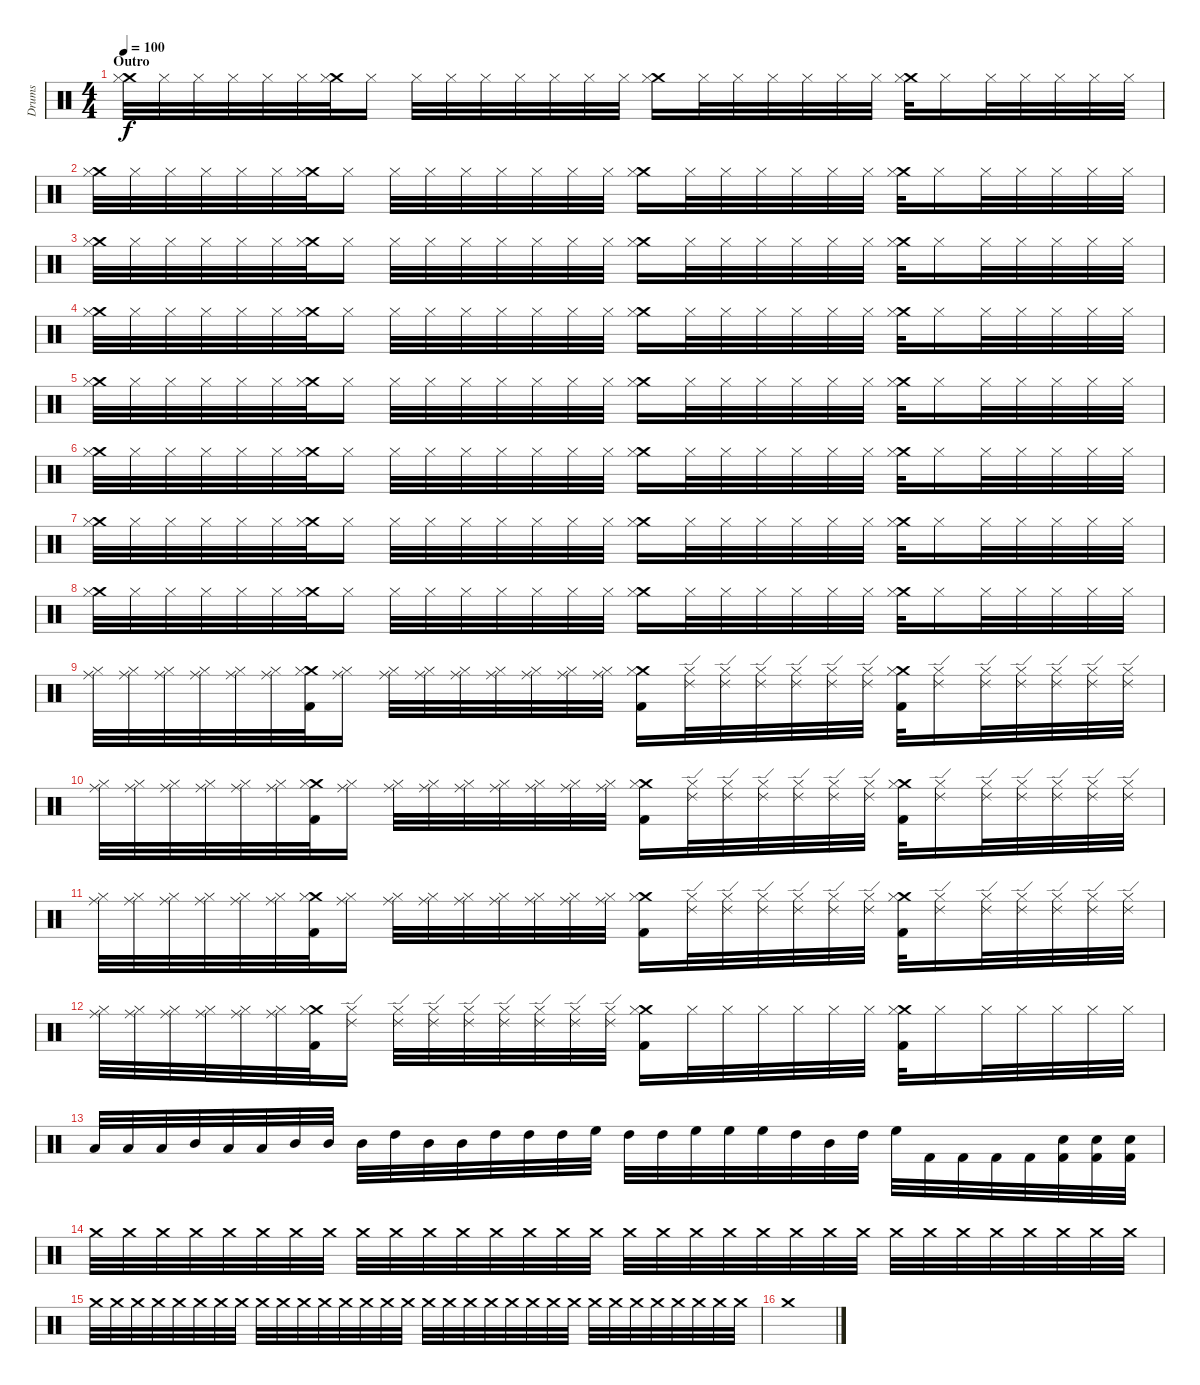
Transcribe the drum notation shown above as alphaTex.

\track ("Drums" "Drums") {instrument percussion}
\staff {score}
\articulation defaults
\ts (4 4)
\section ("" "Outro")
\tempo 100
\clef neutral
\ks c
("Crash medium (hit)" "Hi-Hat (closed)").32{dy f} "Hi-Hat (closed)".32 "Hi-Hat (closed)".32 "Hi-Hat (closed)".32 "Hi-Hat (closed)".32 "Hi-Hat (closed)".32 ("Crash medium (hit)" "Hi-Hat (closed)").32 "Hi-Hat (closed)".16 "Hi-Hat (closed)".32 "Hi-Hat (closed)".32 "Hi-Hat (closed)".32 "Hi-Hat (closed)".32 "Hi-Hat (closed)".32 "Hi-Hat (closed)".32 "Hi-Hat (closed)".32 ("Crash medium (hit)" "Hi-Hat (closed)").16 "Hi-Hat (closed)".32 "Hi-Hat (closed)".32 "Hi-Hat (closed)".32 "Hi-Hat (closed)".32 "Hi-Hat (closed)".32 "Hi-Hat (closed)".32 ("Crash medium (hit)" "Hi-Hat (closed)").32 "Hi-Hat (closed)".16 "Hi-Hat (closed)".32 "Hi-Hat (closed)".32 "Hi-Hat (closed)".32 "Hi-Hat (closed)".32 "Hi-Hat (closed)".32 |
("Crash medium (hit)" "Hi-Hat (closed)").32 "Hi-Hat (closed)".32 "Hi-Hat (closed)".32 "Hi-Hat (closed)".32 "Hi-Hat (closed)".32 "Hi-Hat (closed)".32 ("Crash medium (hit)" "Hi-Hat (closed)").32 "Hi-Hat (closed)".16 "Hi-Hat (closed)".32 "Hi-Hat (closed)".32 "Hi-Hat (closed)".32 "Hi-Hat (closed)".32 "Hi-Hat (closed)".32 "Hi-Hat (closed)".32 "Hi-Hat (closed)".32 ("Crash medium (hit)" "Hi-Hat (closed)").16 "Hi-Hat (closed)".32 "Hi-Hat (closed)".32 "Hi-Hat (closed)".32 "Hi-Hat (closed)".32 "Hi-Hat (closed)".32 "Hi-Hat (closed)".32 ("Crash medium (hit)" "Hi-Hat (closed)").32 "Hi-Hat (closed)".16 "Hi-Hat (closed)".32 "Hi-Hat (closed)".32 "Hi-Hat (closed)".32 "Hi-Hat (closed)".32 "Hi-Hat (closed)".32 |
("Crash medium (hit)" "Hi-Hat (closed)").32 "Hi-Hat (closed)".32 "Hi-Hat (closed)".32 "Hi-Hat (closed)".32 "Hi-Hat (closed)".32 "Hi-Hat (closed)".32 ("Crash medium (hit)" "Hi-Hat (closed)").32 "Hi-Hat (closed)".16 "Hi-Hat (closed)".32 "Hi-Hat (closed)".32 "Hi-Hat (closed)".32 "Hi-Hat (closed)".32 "Hi-Hat (closed)".32 "Hi-Hat (closed)".32 "Hi-Hat (closed)".32 ("Crash medium (hit)" "Hi-Hat (closed)").16 "Hi-Hat (closed)".32 "Hi-Hat (closed)".32 "Hi-Hat (closed)".32 "Hi-Hat (closed)".32 "Hi-Hat (closed)".32 "Hi-Hat (closed)".32 ("Crash medium (hit)" "Hi-Hat (closed)").32 "Hi-Hat (closed)".16 "Hi-Hat (closed)".32 "Hi-Hat (closed)".32 "Hi-Hat (closed)".32 "Hi-Hat (closed)".32 "Hi-Hat (closed)".32 |
("Crash medium (hit)" "Hi-Hat (closed)").32 "Hi-Hat (closed)".32 "Hi-Hat (closed)".32 "Hi-Hat (closed)".32 "Hi-Hat (closed)".32 "Hi-Hat (closed)".32 ("Crash medium (hit)" "Hi-Hat (closed)").32 "Hi-Hat (closed)".16 "Hi-Hat (closed)".32 "Hi-Hat (closed)".32 "Hi-Hat (closed)".32 "Hi-Hat (closed)".32 "Hi-Hat (closed)".32 "Hi-Hat (closed)".32 "Hi-Hat (closed)".32 ("Crash medium (hit)" "Hi-Hat (closed)").16 "Hi-Hat (closed)".32 "Hi-Hat (closed)".32 "Hi-Hat (closed)".32 "Hi-Hat (closed)".32 "Hi-Hat (closed)".32 "Hi-Hat (closed)".32 ("Crash medium (hit)" "Hi-Hat (closed)").32 "Hi-Hat (closed)".16 "Hi-Hat (closed)".32 "Hi-Hat (closed)".32 "Hi-Hat (closed)".32 "Hi-Hat (closed)".32 "Hi-Hat (closed)".32 |
("Crash medium (hit)" "Hi-Hat (closed)").32 "Hi-Hat (closed)".32 "Hi-Hat (closed)".32 "Hi-Hat (closed)".32 "Hi-Hat (closed)".32 "Hi-Hat (closed)".32 ("Crash medium (hit)" "Hi-Hat (closed)").32 "Hi-Hat (closed)".16 "Hi-Hat (closed)".32 "Hi-Hat (closed)".32 "Hi-Hat (closed)".32 "Hi-Hat (closed)".32 "Hi-Hat (closed)".32 "Hi-Hat (closed)".32 "Hi-Hat (closed)".32 ("Crash medium (hit)" "Hi-Hat (closed)").16 "Hi-Hat (closed)".32 "Hi-Hat (closed)".32 "Hi-Hat (closed)".32 "Hi-Hat (closed)".32 "Hi-Hat (closed)".32 "Hi-Hat (closed)".32 ("Crash medium (hit)" "Hi-Hat (closed)").32 "Hi-Hat (closed)".16 "Hi-Hat (closed)".32 "Hi-Hat (closed)".32 "Hi-Hat (closed)".32 "Hi-Hat (closed)".32 "Hi-Hat (closed)".32 |
("Crash medium (hit)" "Hi-Hat (closed)").32 "Hi-Hat (closed)".32 "Hi-Hat (closed)".32 "Hi-Hat (closed)".32 "Hi-Hat (closed)".32 "Hi-Hat (closed)".32 ("Crash medium (hit)" "Hi-Hat (closed)").32 "Hi-Hat (closed)".16 "Hi-Hat (closed)".32 "Hi-Hat (closed)".32 "Hi-Hat (closed)".32 "Hi-Hat (closed)".32 "Hi-Hat (closed)".32 "Hi-Hat (closed)".32 "Hi-Hat (closed)".32 ("Crash medium (hit)" "Hi-Hat (closed)").16 "Hi-Hat (closed)".32 "Hi-Hat (closed)".32 "Hi-Hat (closed)".32 "Hi-Hat (closed)".32 "Hi-Hat (closed)".32 "Hi-Hat (closed)".32 ("Crash medium (hit)" "Hi-Hat (closed)").32 "Hi-Hat (closed)".16 "Hi-Hat (closed)".32 "Hi-Hat (closed)".32 "Hi-Hat (closed)".32 "Hi-Hat (closed)".32 "Hi-Hat (closed)".32 |
("Crash medium (hit)" "Hi-Hat (closed)").32 "Hi-Hat (closed)".32 "Hi-Hat (closed)".32 "Hi-Hat (closed)".32 "Hi-Hat (closed)".32 "Hi-Hat (closed)".32 ("Crash medium (hit)" "Hi-Hat (closed)").32 "Hi-Hat (closed)".16 "Hi-Hat (closed)".32 "Hi-Hat (closed)".32 "Hi-Hat (closed)".32 "Hi-Hat (closed)".32 "Hi-Hat (closed)".32 "Hi-Hat (closed)".32 "Hi-Hat (closed)".32 ("Crash medium (hit)" "Hi-Hat (closed)").16 "Hi-Hat (closed)".32 "Hi-Hat (closed)".32 "Hi-Hat (closed)".32 "Hi-Hat (closed)".32 "Hi-Hat (closed)".32 "Hi-Hat (closed)".32 ("Crash medium (hit)" "Hi-Hat (closed)").32 "Hi-Hat (closed)".16 "Hi-Hat (closed)".32 "Hi-Hat (closed)".32 "Hi-Hat (closed)".32 "Hi-Hat (closed)".32 "Hi-Hat (closed)".32 |
("Crash medium (hit)" "Hi-Hat (closed)").32 "Hi-Hat (closed)".32 "Hi-Hat (closed)".32 "Hi-Hat (closed)".32 "Hi-Hat (closed)".32 "Hi-Hat (closed)".32 ("Crash medium (hit)" "Hi-Hat (closed)").32 "Hi-Hat (closed)".16 "Hi-Hat (closed)".32 "Hi-Hat (closed)".32 "Hi-Hat (closed)".32 "Hi-Hat (closed)".32 "Hi-Hat (closed)".32 "Hi-Hat (closed)".32 "Hi-Hat (closed)".32 ("Crash medium (hit)" "Hi-Hat (closed)").16 "Hi-Hat (closed)".32 "Hi-Hat (closed)".32 "Hi-Hat (closed)".32 "Hi-Hat (closed)".32 "Hi-Hat (closed)".32 "Hi-Hat (closed)".32 ("Crash medium (hit)" "Hi-Hat (closed)").32 "Hi-Hat (closed)".16 "Hi-Hat (closed)".32 "Hi-Hat (closed)".32 "Hi-Hat (closed)".32 "Hi-Hat (closed)".32 "Hi-Hat (closed)".32 |
("Ride (middle)" "Hi-Hat (closed)").32 ("Ride (middle)" "Hi-Hat (closed)").32 ("Ride (middle)" "Hi-Hat (closed)").32 ("Ride (middle)" "Hi-Hat (closed)").32 ("Ride (middle)" "Hi-Hat (closed)").32 ("Ride (middle)" "Hi-Hat (closed)").32 ("Crash medium (hit)" "Hi-Hat (closed)" "Kick (hit) 2").32 ("Ride (middle)" "Hi-Hat (closed)").16 ("Ride (middle)" "Hi-Hat (closed)").32 ("Ride (middle)" "Hi-Hat (closed)").32 ("Ride (middle)" "Hi-Hat (closed)").32 ("Ride (middle)" "Hi-Hat (closed)").32 ("Ride (middle)" "Hi-Hat (closed)").32 ("Ride (middle)" "Hi-Hat (closed)").32 ("Ride (middle)" "Hi-Hat (closed)").32 ("Crash medium (hit)" "Hi-Hat (closed)" "Kick (hit) 2").16 ("Ride (edge) 2" "Hi-Hat (closed)").32 ("Ride (edge) 2" "Hi-Hat (closed)").32 ("Ride (edge) 2" "Hi-Hat (closed)").32 ("Ride (edge) 2" "Hi-Hat (closed)").32 ("Ride (edge) 2" "Hi-Hat (closed)").32 ("Ride (edge) 2" "Hi-Hat (closed)").32 ("Crash medium (hit)" "Hi-Hat (closed)" "Kick (hit) 2").32 ("Ride (edge) 2" "Hi-Hat (closed)").16 ("Ride (edge) 2" "Hi-Hat (closed)").32 ("Ride (edge) 2" "Hi-Hat (closed)").32 ("Ride (edge) 2" "Hi-Hat (closed)").32 ("Ride (edge) 2" "Hi-Hat (closed)").32 ("Ride (edge) 2" "Hi-Hat (closed)").32 |
("Ride (middle)" "Hi-Hat (closed)").32 ("Ride (middle)" "Hi-Hat (closed)").32 ("Ride (middle)" "Hi-Hat (closed)").32 ("Ride (middle)" "Hi-Hat (closed)").32 ("Ride (middle)" "Hi-Hat (closed)").32 ("Ride (middle)" "Hi-Hat (closed)").32 ("Crash medium (hit)" "Hi-Hat (closed)" "Kick (hit) 2").32 ("Ride (middle)" "Hi-Hat (closed)").16 ("Ride (middle)" "Hi-Hat (closed)").32 ("Ride (middle)" "Hi-Hat (closed)").32 ("Ride (middle)" "Hi-Hat (closed)").32 ("Ride (middle)" "Hi-Hat (closed)").32 ("Ride (middle)" "Hi-Hat (closed)").32 ("Ride (middle)" "Hi-Hat (closed)").32 ("Ride (middle)" "Hi-Hat (closed)").32 ("Crash medium (hit)" "Hi-Hat (closed)" "Kick (hit) 2").16 ("Ride (edge) 2" "Hi-Hat (closed)").32 ("Ride (edge) 2" "Hi-Hat (closed)").32 ("Ride (edge) 2" "Hi-Hat (closed)").32 ("Ride (edge) 2" "Hi-Hat (closed)").32 ("Ride (edge) 2" "Hi-Hat (closed)").32 ("Ride (edge) 2" "Hi-Hat (closed)").32 ("Crash medium (hit)" "Hi-Hat (closed)" "Kick (hit) 2").32 ("Ride (edge) 2" "Hi-Hat (closed)").16 ("Ride (edge) 2" "Hi-Hat (closed)").32 ("Ride (edge) 2" "Hi-Hat (closed)").32 ("Ride (edge) 2" "Hi-Hat (closed)").32 ("Ride (edge) 2" "Hi-Hat (closed)").32 ("Ride (edge) 2" "Hi-Hat (closed)").32 |
("Ride (middle)" "Hi-Hat (closed)").32 ("Ride (middle)" "Hi-Hat (closed)").32 ("Ride (middle)" "Hi-Hat (closed)").32 ("Ride (middle)" "Hi-Hat (closed)").32 ("Ride (middle)" "Hi-Hat (closed)").32 ("Ride (middle)" "Hi-Hat (closed)").32 ("Crash medium (hit)" "Hi-Hat (closed)" "Kick (hit) 2").32 ("Ride (middle)" "Hi-Hat (closed)").16 ("Ride (middle)" "Hi-Hat (closed)").32 ("Ride (middle)" "Hi-Hat (closed)").32 ("Ride (middle)" "Hi-Hat (closed)").32 ("Ride (middle)" "Hi-Hat (closed)").32 ("Ride (middle)" "Hi-Hat (closed)").32 ("Ride (middle)" "Hi-Hat (closed)").32 ("Ride (middle)" "Hi-Hat (closed)").32 ("Crash medium (hit)" "Hi-Hat (closed)" "Kick (hit) 2").16 ("Ride (edge) 2" "Hi-Hat (closed)").32 ("Ride (edge) 2" "Hi-Hat (closed)").32 ("Ride (edge) 2" "Hi-Hat (closed)").32 ("Ride (edge) 2" "Hi-Hat (closed)").32 ("Ride (edge) 2" "Hi-Hat (closed)").32 ("Ride (edge) 2" "Hi-Hat (closed)").32 ("Crash medium (hit)" "Hi-Hat (closed)" "Kick (hit) 2").32 ("Ride (edge) 2" "Hi-Hat (closed)").16 ("Ride (edge) 2" "Hi-Hat (closed)").32 ("Ride (edge) 2" "Hi-Hat (closed)").32 ("Ride (edge) 2" "Hi-Hat (closed)").32 ("Ride (edge) 2" "Hi-Hat (closed)").32 ("Ride (edge) 2" "Hi-Hat (closed)").32 |
("Ride (middle)" "Hi-Hat (closed)").32 ("Ride (middle)" "Hi-Hat (closed)").32 ("Ride (middle)" "Hi-Hat (closed)").32 ("Ride (middle)" "Hi-Hat (closed)").32 ("Ride (middle)" "Hi-Hat (closed)").32 ("Ride (middle)" "Hi-Hat (closed)").32 ("Crash medium (hit)" "Hi-Hat (closed)" "Kick (hit) 2").32 ("Ride (edge) 2" "Hi-Hat (closed)").16 ("Ride (edge) 2" "Hi-Hat (closed)").32 ("Ride (edge) 2" "Hi-Hat (closed)").32 ("Ride (edge) 2" "Hi-Hat (closed)").32 ("Ride (edge) 2" "Hi-Hat (closed)").32 ("Ride (edge) 2" "Hi-Hat (closed)").32 ("Ride (edge) 2" "Hi-Hat (closed)").32 ("Ride (edge) 2" "Hi-Hat (closed)").32 ("Crash medium (hit)" "Hi-Hat (closed)" "Kick (hit) 2").16 "Hi-Hat (closed)".32 "Hi-Hat (closed)".32 "Hi-Hat (closed)".32 "Hi-Hat (closed)".32 "Hi-Hat (closed)".32 "Hi-Hat (closed)".32 ("Crash medium (hit)" "Hi-Hat (closed)" "Kick (hit) 2").32 "Hi-Hat (closed)".16 "Hi-Hat (closed)".32 "Hi-Hat (closed)".32 "Hi-Hat (closed)".32 "Hi-Hat (closed)".32 "Hi-Hat (closed)".32 |
"Low Tom (hit)".32 "Low Tom (hit)".32 "Low Tom (hit)".32 "Mid Tom (hit)".32 "Low Tom (hit)".32 "Low Tom (hit)".32 "Mid Tom (hit)".32 "Mid Tom (hit)".32 "Mid Tom (hit)".32 "High Tom (hit)".32 "Mid Tom (hit)".32 "Mid Tom (hit)".32 "High Tom (hit)".32 "High Tom (hit)".32 "High Tom (hit)".32 "High Floor Tom (hit)".32 "High Tom (hit)".32 "High Tom (hit)".32 "High Floor Tom (hit)".32 "High Floor Tom (hit)".32 "High Floor Tom (hit)".32 "High Tom (hit)".32 "Mid Tom (hit)".32 "High Tom (hit)".32 "High Floor Tom (hit)".32 "Kick (hit) 2".32 "Kick (hit) 2".32 "Kick (hit) 2".32 "Kick (hit) 2".32 ("Snare (hit) 2" "Kick (hit) 2").32 ("Snare (hit) 2" "Kick (hit) 2").32 ("Snare (hit) 2" "Kick (hit) 2").32 |
"Crash medium (hit)".32{volume 0} "Crash medium (hit)".32 "Crash medium (hit)".32 "Crash medium (hit)".32 "Crash medium (hit)".32 "Crash medium (hit)".32 "Crash medium (hit)".32 "Crash medium (hit)".32 "Crash medium (hit)".32 "Crash medium (hit)".32 "Crash medium (hit)".32 "Crash medium (hit)".32 "Crash medium (hit)".32 "Crash medium (hit)".32 "Crash medium (hit)".32 "Crash medium (hit)".32 "Crash medium (hit)".32 "Crash medium (hit)".32 "Crash medium (hit)".32 "Crash medium (hit)".32 "Crash medium (hit)".32 "Crash medium (hit)".32 "Crash medium (hit)".32 "Crash medium (hit)".32 "Crash medium (hit)".32 "Crash medium (hit)".32 "Crash medium (hit)".32 "Crash medium (hit)".32 "Crash medium (hit)".32 "Crash medium (hit)".32 "Crash medium (hit)".32 "Crash medium (hit)".32 |
"Crash medium (hit)".32 "Crash medium (hit)".32 "Crash medium (hit)".32 "Crash medium (hit)".32 "Crash medium (hit)".32 "Crash medium (hit)".32 "Crash medium (hit)".32 "Crash medium (hit)".32 "Crash medium (hit)".32 "Crash medium (hit)".32 "Crash medium (hit)".32 "Crash medium (hit)".32 "Crash medium (hit)".32 "Crash medium (hit)".32 "Crash medium (hit)".32 "Crash medium (hit)".32 "Crash medium (hit)".32 "Crash medium (hit)".32 "Crash medium (hit)".32 "Crash medium (hit)".32 "Crash medium (hit)".32 "Crash medium (hit)".32 "Crash medium (hit)".32 "Crash medium (hit)".32 "Crash medium (hit)".32 "Crash medium (hit)".32 "Crash medium (hit)".32 "Crash medium (hit)".32 "Crash medium (hit)".32 "Crash medium (hit)".32 "Crash medium (hit)".32 "Crash medium (hit)".32 |
"Crash medium (hit)".1
